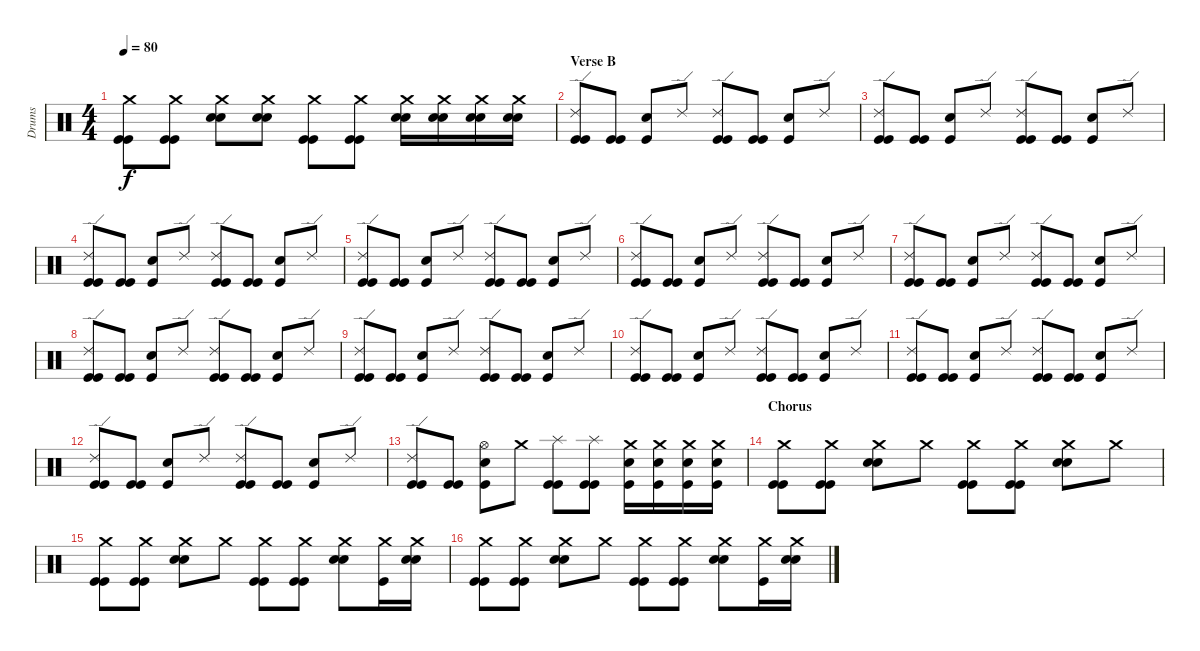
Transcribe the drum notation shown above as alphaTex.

\track ("Drums" "Drums") {instrument percussion}
\staff {score}
\articulation defaults
\ts (4 4)
\tempo 80
\clef neutral
\ks c
("Crash medium (hit)" "Kick (hit)" "Kick (hit)").8{dy f} ("Crash medium (hit)" "Kick (hit)" "Kick (hit)").8 ("Crash medium (hit)" "Snare (hit) 2" "Snare (hit) 2").8 ("Crash medium (hit)" "Snare (hit) 2" "Snare (hit) 2").8 ("Crash medium (hit)" "Kick (hit)" "Kick (hit)").8 ("Crash medium (hit)" "Kick (hit)" "Kick (hit)").8 ("Crash medium (hit)" "Snare (hit) 2" "Snare (hit) 2").16 ("Crash medium (hit)" "Snare (hit) 2" "Snare (hit) 2").16 ("Crash medium (hit)" "Snare (hit) 2" "Snare (hit) 2").16 ("Crash medium (hit)" "Snare (hit) 2" "Snare (hit) 2").16 |
\section ("" "Verse B")
("Ride (edge) 2" "Kick (hit)" "Kick (hit)").8 ("Kick (hit)" "Kick (hit)").8 ("Snare (hit) 2" "Kick (hit)").8 "Ride (edge) 2".8 ("Ride (edge) 2" "Kick (hit)" "Kick (hit)").8 ("Kick (hit)" "Kick (hit)").8 ("Snare (hit) 2" "Kick (hit)").8 "Ride (edge) 2".8 |
("Ride (edge) 2" "Kick (hit)" "Kick (hit)").8 ("Kick (hit)" "Kick (hit)").8 ("Snare (hit) 2" "Kick (hit)").8 "Ride (edge) 2".8 ("Ride (edge) 2" "Kick (hit)" "Kick (hit)").8 ("Kick (hit)" "Kick (hit)").8 ("Snare (hit) 2" "Kick (hit)").8 "Ride (edge) 2".8 |
("Ride (edge) 2" "Kick (hit)" "Kick (hit)").8 ("Kick (hit)" "Kick (hit)").8 ("Snare (hit) 2" "Kick (hit)").8 "Ride (edge) 2".8 ("Ride (edge) 2" "Kick (hit)" "Kick (hit)").8 ("Kick (hit)" "Kick (hit)").8 ("Snare (hit) 2" "Kick (hit)").8 "Ride (edge) 2".8 |
("Ride (edge) 2" "Kick (hit)" "Kick (hit)").8 ("Kick (hit)" "Kick (hit)").8 ("Snare (hit) 2" "Kick (hit)").8 "Ride (edge) 2".8 ("Ride (edge) 2" "Kick (hit)" "Kick (hit)").8 ("Kick (hit)" "Kick (hit)").8 ("Snare (hit) 2" "Kick (hit)").8 "Ride (edge) 2".8 |
("Ride (edge) 2" "Kick (hit)" "Kick (hit)").8 ("Kick (hit)" "Kick (hit)").8 ("Snare (hit) 2" "Kick (hit)").8 "Ride (edge) 2".8 ("Ride (edge) 2" "Kick (hit)" "Kick (hit)").8 ("Kick (hit)" "Kick (hit)").8 ("Snare (hit) 2" "Kick (hit)").8 "Ride (edge) 2".8 |
("Ride (edge) 2" "Kick (hit)" "Kick (hit)").8 ("Kick (hit)" "Kick (hit)").8 ("Snare (hit) 2" "Kick (hit)").8 "Ride (edge) 2".8 ("Ride (edge) 2" "Kick (hit)" "Kick (hit)").8 ("Kick (hit)" "Kick (hit)").8 ("Snare (hit) 2" "Kick (hit)").8 "Ride (edge) 2".8 |
("Ride (edge) 2" "Kick (hit)" "Kick (hit)").8 ("Kick (hit)" "Kick (hit)").8 ("Snare (hit) 2" "Kick (hit)").8 "Ride (edge) 2".8 ("Ride (edge) 2" "Kick (hit)" "Kick (hit)").8 ("Kick (hit)" "Kick (hit)").8 ("Snare (hit) 2" "Kick (hit)").8 "Ride (edge) 2".8 |
("Ride (edge) 2" "Kick (hit)" "Kick (hit)").8 ("Kick (hit)" "Kick (hit)").8 ("Snare (hit) 2" "Kick (hit)").8 "Ride (edge) 2".8 ("Ride (edge) 2" "Kick (hit)" "Kick (hit)").8 ("Kick (hit)" "Kick (hit)").8 ("Snare (hit) 2" "Kick (hit)").8 "Ride (edge) 2".8 |
("Ride (edge) 2" "Kick (hit)" "Kick (hit)").8 ("Kick (hit)" "Kick (hit)").8 ("Snare (hit) 2" "Kick (hit)").8 "Ride (edge) 2".8 ("Ride (edge) 2" "Kick (hit)" "Kick (hit)").8 ("Kick (hit)" "Kick (hit)").8 ("Snare (hit) 2" "Kick (hit)").8 "Ride (edge) 2".8 |
("Ride (edge) 2" "Kick (hit)" "Kick (hit)").8 ("Kick (hit)" "Kick (hit)").8 ("Snare (hit) 2" "Kick (hit)").8 "Ride (edge) 2".8 ("Ride (edge) 2" "Kick (hit)" "Kick (hit)").8 ("Kick (hit)" "Kick (hit)").8 ("Snare (hit) 2" "Kick (hit)").8 "Ride (edge) 2".8 |
("Ride (edge) 2" "Kick (hit)" "Kick (hit)").8 ("Kick (hit)" "Kick (hit)").8 ("Snare (hit) 2" "Kick (hit)").8 "Ride (edge) 2".8 ("Ride (edge) 2" "Kick (hit)" "Kick (hit)").8 ("Kick (hit)" "Kick (hit)").8 ("Snare (hit) 2" "Kick (hit)").8 "Ride (edge) 2".8 |
("Ride (edge) 2" "Kick (hit)" "Kick (hit)").8 ("Kick (hit)" "Kick (hit)").8 ("Hi-Hat (open)" "Snare (hit) 2" "Kick (hit)").8 "Crash medium (hit)".8 ("Splash (hit)" "Kick (hit)" "Kick (hit)").8 ("Splash (hit)" "Kick (hit)" "Kick (hit)").8 ("Crash medium (hit)" "Snare (hit) 2" "Kick (hit)").16 ("Crash medium (hit)" "Snare (hit) 2" "Kick (hit)").16 ("Crash medium (hit)" "Snare (hit) 2" "Kick (hit)").16 ("Crash medium (hit)" "Snare (hit) 2" "Kick (hit)").16 |
\section ("" "Chorus")
("Crash medium (hit)" "Kick (hit)" "Kick (hit)").8 ("Crash medium (hit)" "Kick (hit)" "Kick (hit)").8 ("Crash medium (hit)" "Snare (hit) 2" "Snare (hit) 2").8 "Crash medium (hit)".8 ("Crash medium (hit)" "Kick (hit)" "Kick (hit)").8 ("Crash medium (hit)" "Kick (hit)" "Kick (hit)").8 ("Crash medium (hit)" "Snare (hit) 2" "Snare (hit) 2").8 "Crash medium (hit)".8 |
("Crash medium (hit)" "Kick (hit)" "Kick (hit)").8 ("Crash medium (hit)" "Kick (hit)" "Kick (hit)").8 ("Crash medium (hit)" "Snare (hit) 2" "Snare (hit) 2").8 "Crash medium (hit)".8 ("Crash medium (hit)" "Kick (hit)" "Kick (hit)").8 ("Crash medium (hit)" "Kick (hit)" "Kick (hit)").8 ("Crash medium (hit)" "Snare (hit) 2" "Snare (hit) 2").8 ("Crash medium (hit)" "Kick (hit)").16 ("Crash medium (hit)" "Snare (hit) 2" "Snare (hit) 2").16 |
("Crash medium (hit)" "Kick (hit)" "Kick (hit)").8 ("Crash medium (hit)" "Kick (hit)" "Kick (hit)").8 ("Crash medium (hit)" "Snare (hit) 2" "Snare (hit) 2").8 "Crash medium (hit)".8 ("Crash medium (hit)" "Kick (hit)" "Kick (hit)").8 ("Crash medium (hit)" "Kick (hit)" "Kick (hit)").8 ("Crash medium (hit)" "Snare (hit) 2" "Snare (hit) 2").8 ("Crash medium (hit)" "Kick (hit)").16 ("Crash medium (hit)" "Snare (hit) 2" "Snare (hit) 2").16
